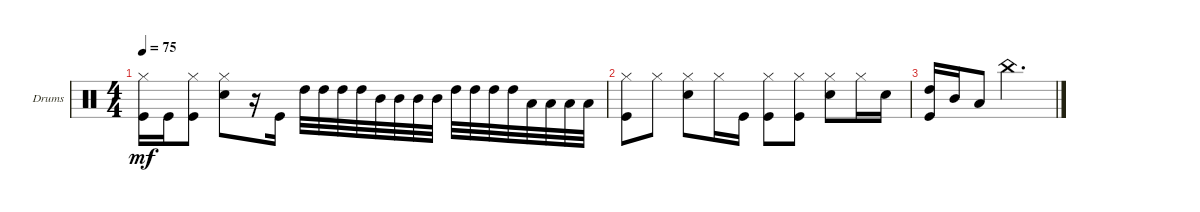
\defaultSystemsLayout 4
\bracketExtendMode groupsimilarinstruments
\firstSystemTrackNameOrientation horizontal
\otherSystemsTrackNameOrientation horizontal
\track ("Барабаны" "Drums") {solo instrument percussion}
\staff {score}
\articulation defaults
\ts (4 4)
\tempo 75
\clef neutral
\ks c
("Kick (hit)" "Hi-Hat (closed)").16{dy mf} "Kick (hit)".16 ("Kick (hit)" "Hi-Hat (closed)").8 ("Snare (hit) 2" "Hi-Hat (closed)").8 r.16 "Kick (hit)".16 "High Tom (hit)".32 "High Tom (hit)".32 "High Tom (hit)".32 "High Tom (hit)".32 "Mid Tom (hit)".32 "Mid Tom (hit)".32 "Mid Tom (hit)".32 "Mid Tom (hit)".32 "High Tom (hit)".32 "High Tom (hit)".32 "High Tom (hit)".32 "High Tom (hit)".32 "Low Tom (hit)".32 "Low Tom (hit)".32 "Low Tom (hit)".32 "Low Tom (hit)".32 |
("Kick (hit)" "Hi-Hat (closed)").8 "Hi-Hat (closed)".8 ("Snare (hit) 2" "Hi-Hat (closed)").8 "Hi-Hat (closed)".16 "Kick (hit)".16 ("Kick (hit)" "Hi-Hat (closed)").8 ("Kick (hit)" "Hi-Hat (closed)").8 ("Snare (hit) 2" "Hi-Hat (closed)").8 "Hi-Hat (closed)".16 "Snare (hit) 2".16 |
("Kick (hit)" "High Tom (hit)").16 "Mid Tom (hit)".16 "Low Tom (hit)".8 "China (hit)".2{d}
